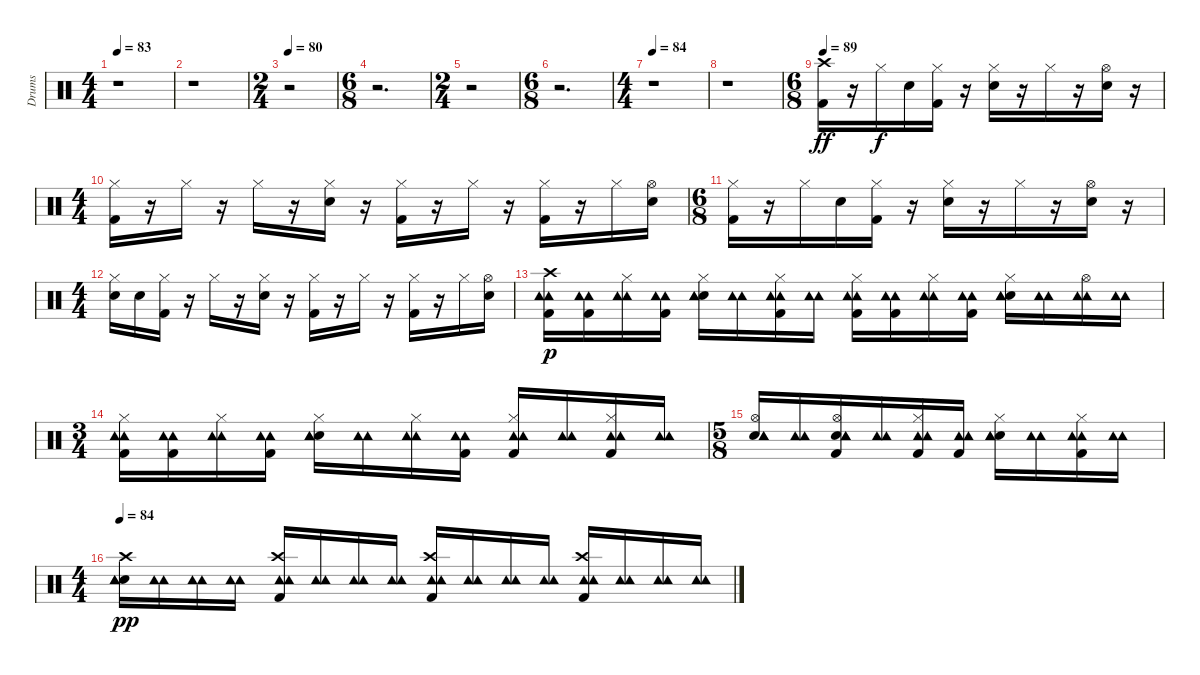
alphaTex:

\track ("Drums" "Drums") {instrument percussion}
\staff {score}
\articulation defaults
\ts (4 4)
\tempo 83
\clef neutral
\ks c
r.1{dy ppp} |
r.1 |
\ts (2 4)
\tempo 80
r.2 |
\ts (6 8)
r.2{d} |
\ts (2 4)
r.2 |
\ts (6 8)
r.2{d} |
\ts (4 4)
\tempo 84
r.1 |
r.1 |
\ts (6 8)
\tempo 89
("Kick (hit) 2" "Crash high (hit)").16{dy ff} r.16 "Hi-Hat (closed)".16{dy f} "Snare (hit) 2".16 ("Kick (hit) 2" "Hi-Hat (closed)").16 r.16 ("Snare (hit) 2" "Hi-Hat (closed)").16 r.16 "Hi-Hat (closed)".16 r.16 ("Snare (hit) 2" "Hi-Hat (open)").16 r.16 |
\ts (4 4)
("Kick (hit) 2" "Hi-Hat (closed)").16 r.16 "Hi-Hat (closed)".16 r.16 "Hi-Hat (closed)".16 r.16 ("Snare (hit) 2" "Hi-Hat (closed)").16 r.16 ("Kick (hit) 2" "Hi-Hat (closed)").16 r.16 "Hi-Hat (closed)".16 r.16 ("Kick (hit) 2" "Hi-Hat (closed)").16 r.16 "Hi-Hat (closed)".16 ("Snare (hit) 2" "Hi-Hat (open)").16 |
\ts (6 8)
("Kick (hit) 2" "Hi-Hat (closed)").16 r.16 "Hi-Hat (closed)".16 "Snare (hit) 2".16 ("Kick (hit) 2" "Hi-Hat (closed)").16 r.16 ("Snare (hit) 2" "Hi-Hat (closed)").16 r.16 "Hi-Hat (closed)".16 r.16 ("Snare (hit) 2" "Hi-Hat (open)").16 r.16 |
\ts (4 4)
("Snare (hit) 2" "Hi-Hat (closed)").16 "Snare (hit) 2".16 ("Kick (hit) 2" "Hi-Hat (closed)").16 r.16 "Hi-Hat (closed)".16 r.16 ("Snare (hit) 2" "Hi-Hat (closed)").16 r.16 ("Kick (hit) 2" "Hi-Hat (closed)").16 r.16 "Hi-Hat (closed)".16 r.16 ("Kick (hit) 2" "Hi-Hat (closed)").16 r.16 "Hi-Hat (closed)".16 ("Snare (hit) 2" "Hi-Hat (open)").16 |
("Kick (hit) 2" "Crash high (hit)" "Tambourine (hit)" "Tambourine (hit)").16{dy p} ("Kick (hit) 2" "Tambourine (hit)" "Tambourine (hit)").16 ("Hi-Hat (closed)" "Tambourine (hit)" "Tambourine (hit)").16 ("Kick (hit) 2" "Tambourine (hit)" "Tambourine (hit)").16 ("Snare (hit) 2" "Hi-Hat (closed)" "Tambourine (hit)" "Tambourine (hit)").16 ("Tambourine (hit)" "Tambourine (hit)").16 ("Kick (hit) 2" "Hi-Hat (closed)" "Tambourine (hit)" "Tambourine (hit)").16 ("Tambourine (hit)" "Tambourine (hit)").16 ("Kick (hit) 2" "Hi-Hat (closed)" "Tambourine (hit)" "Tambourine (hit)").16 ("Kick (hit) 2" "Tambourine (hit)" "Tambourine (hit)").16 ("Hi-Hat (closed)" "Tambourine (hit)" "Tambourine (hit)").16 ("Kick (hit) 2" "Tambourine (hit)" "Tambourine (hit)").16 ("Snare (hit) 2" "Hi-Hat (closed)" "Tambourine (hit)" "Tambourine (hit)").16 ("Tambourine (hit)" "Tambourine (hit)").16 ("Hi-Hat (open)" "Tambourine (hit)" "Tambourine (hit)").16 ("Tambourine (hit)" "Tambourine (hit)").16 |
\ts (3 4)
("Kick (hit) 2" "Hi-Hat (closed)" "Tambourine (hit)" "Tambourine (hit)").16 ("Kick (hit) 2" "Tambourine (hit)" "Tambourine (hit)").16 ("Hi-Hat (closed)" "Tambourine (hit)" "Tambourine (hit)").16 ("Kick (hit) 2" "Tambourine (hit)" "Tambourine (hit)").16 ("Snare (hit) 2" "Hi-Hat (closed)" "Tambourine (hit)" "Tambourine (hit)").16 ("Tambourine (hit)" "Tambourine (hit)").16 ("Hi-Hat (closed)" "Tambourine (hit)" "Tambourine (hit)").16 ("Kick (hit) 2" "Tambourine (hit)" "Tambourine (hit)").16 ("Kick (hit) 2" "Hi-Hat (closed)" "Tambourine (hit)" "Tambourine (hit)").16 ("Tambourine (hit)" "Tambourine (hit)").16 ("Kick (hit) 2" "Hi-Hat (closed)" "Tambourine (hit)" "Tambourine (hit)").16 ("Tambourine (hit)" "Tambourine (hit)").16 |
\ts (5 8)
("Snare (hit) 2" "Hi-Hat (open)" "Tambourine (hit)" "Tambourine (hit)").16 ("Tambourine (hit)" "Tambourine (hit)").16 ("Kick (hit) 2" "Snare (hit) 2" "Hi-Hat (open)" "Tambourine (hit)" "Tambourine (hit)").16 ("Tambourine (hit)" "Tambourine (hit)").16 ("Kick (hit) 2" "Hi-Hat (closed)" "Tambourine (hit)" "Tambourine (hit)").16 ("Kick (hit) 2" "Tambourine (hit)" "Tambourine (hit)").16 ("Snare (hit) 2" "Hi-Hat (closed)" "Tambourine (hit)" "Tambourine (hit)").16 ("Tambourine (hit)" "Tambourine (hit)").16 ("Kick (hit) 2" "Hi-Hat (closed)" "Tambourine (hit)" "Tambourine (hit)").16 ("Tambourine (hit)" "Tambourine (hit)").16 |
\ts (4 4)
\tempo 84
("Snare (hit) 2" "Crash high (hit)" "Tambourine (hit)" "Tambourine (hit)").16{dy pp} ("Tambourine (hit)" "Tambourine (hit)").16 ("Tambourine (hit)" "Tambourine (hit)").16 ("Tambourine (hit)" "Tambourine (hit)").16 ("Kick (hit) 2" "Crash high (hit)" "Tambourine (hit)" "Tambourine (hit)").16 ("Tambourine (hit)" "Tambourine (hit)").16 ("Tambourine (hit)" "Tambourine (hit)").16 ("Tambourine (hit)" "Tambourine (hit)").16 ("Kick (hit) 2" "Crash high (hit)" "Tambourine (hit)" "Tambourine (hit)").16 ("Tambourine (hit)" "Tambourine (hit)").16 ("Tambourine (hit)" "Tambourine (hit)").16 ("Tambourine (hit)" "Tambourine (hit)").16 ("Kick (hit) 2" "Crash high (hit)" "Tambourine (hit)" "Tambourine (hit)").16 ("Tambourine (hit)" "Tambourine (hit)").16 ("Tambourine (hit)" "Tambourine (hit)").16 ("Tambourine (hit)" "Tambourine (hit)").16
